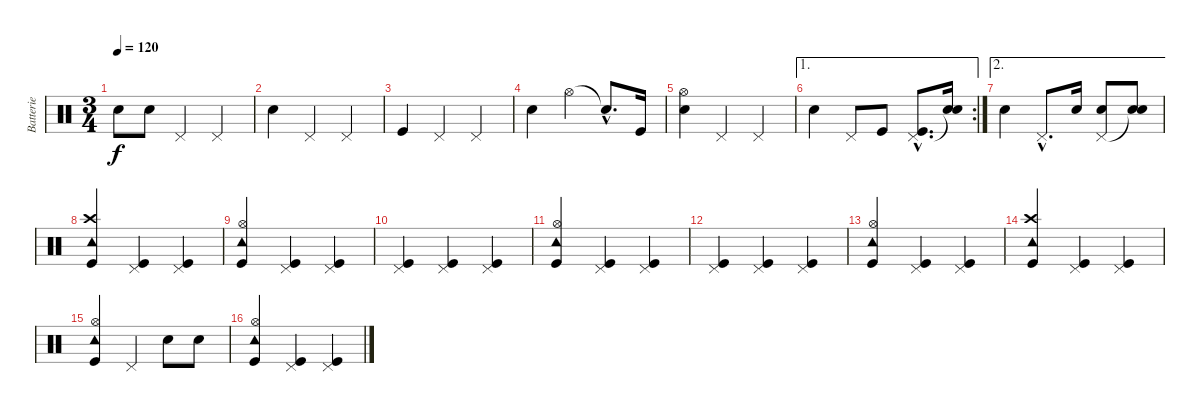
\track ("Batterie" "Batterie") {instrument percussion}
\staff {score}
\articulation defaults
\ts (3 4)
\tempo 120
\clef neutral
\ks c "Snare (hit) 2".8{dy f} "Snare (hit) 2".8 "Pedal Hi-Hat (hit)".4 "Pedal Hi-Hat (hit)".4
|
"Snare (hit) 2".4 "Pedal Hi-Hat (hit)".4 "Pedal Hi-Hat (hit)".4 |
"Kick (hit)".4 "Pedal Hi-Hat (hit)".4 "Pedal Hi-Hat (hit)".4 |
"Snare (hit) 2".4 "Hi-Hat (open)".4 "Snare (hit)"{hac t}.8{d} "Kick (hit)".16 |
("Hi-Hat (open)" "Snare (hit) 2").4 "Pedal Hi-Hat (hit)".4 "Pedal Hi-Hat (hit)".4 |
\ae 1
\rc 2 "Snare (hit) 2".4 "Pedal Hi-Hat (hit)".8 "Kick (hit)".8
("Pedal Hi-Hat (hit)"{hac} "Kick (hit)"{hac}).8{d} ("Snare (hit)"{t} "Snare (hit) 2").16 |
\ae 2 "Snare (hit) 2".4 "Pedal Hi-Hat (hit)"{hac}.8{d} "Snare (hit) 2".16
("Pedal Hi-Hat (hit)" "Snare (hit) 2").8 ("Snare (hit)"{t} "Snare (hit) 2").8 |
("Crash high (hit)" "Tambourine (hit)" "Kick (hit)").4 ("Pedal Hi-Hat (hit)" "Kick (hit)").4 ("Pedal Hi-Hat (hit)" "Kick (hit)").4 |
("Hi-Hat (open)" "Tambourine (hit)" "Kick (hit)").4 ("Pedal Hi-Hat (hit)" "Kick (hit)").4 ("Pedal Hi-Hat (hit)" "Kick (hit)").4 |
("Pedal Hi-Hat (hit)" "Kick (hit)").4 ("Pedal Hi-Hat (hit)" "Kick (hit)").4 ("Pedal Hi-Hat (hit)" "Kick (hit)").4 |
("Hi-Hat (open)" "Tambourine (hit)" "Kick (hit)").4 ("Pedal Hi-Hat (hit)" "Kick (hit)").4 ("Pedal Hi-Hat (hit)" "Kick (hit)").4 |
("Pedal Hi-Hat (hit)" "Kick (hit)").4 ("Pedal Hi-Hat (hit)" "Kick (hit)").4 ("Pedal Hi-Hat (hit)" "Kick (hit)").4 |
("Hi-Hat (open)" "Tambourine (hit)" "Kick (hit)").4 ("Pedal Hi-Hat (hit)" "Kick (hit)").4 ("Pedal Hi-Hat (hit)" "Kick (hit)").4 |
("Crash high (hit)" "Tambourine (hit)" "Kick (hit)").4 ("Pedal Hi-Hat (hit)" "Kick (hit)").4 ("Pedal Hi-Hat (hit)" "Kick (hit)").4 |
("Hi-Hat (open)" "Tambourine (hit)" "Kick (hit)").4 "Pedal Hi-Hat (hit)".4 "Snare (hit) 2".8 "Snare (hit) 2".8 |
("Hi-Hat (open)" "Tambourine (hit)" "Kick (hit)").4 ("Pedal Hi-Hat (hit)" "Kick (hit)").4 ("Pedal Hi-Hat (hit)" "Kick (hit)").4
